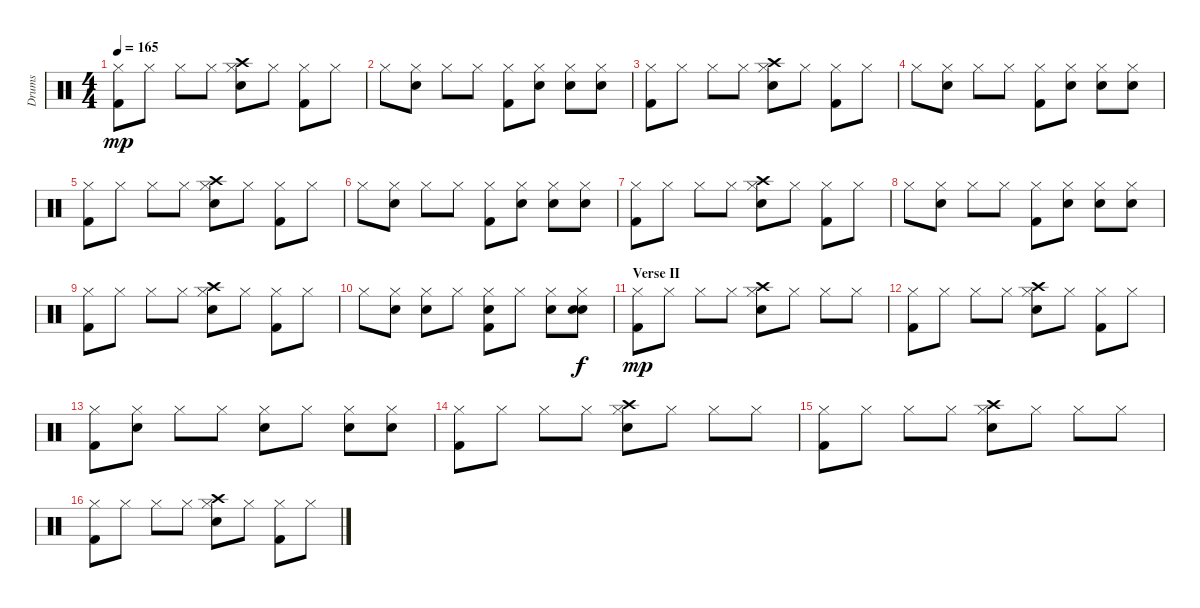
\track ("Drums" "Drums") {instrument percussion}
\staff {score}
\articulation defaults
\ts (4 4)
\tempo 165
\clef neutral
\ks c
("Hi-Hat (closed)" "Kick (hit) 2").8{dy mp} "Hi-Hat (closed)".8 "Hi-Hat (closed)".8 "Hi-Hat (closed)".8 ("Hi-Hat (closed)" "Snare (hit) 2" "Crash high (hit)").8 "Hi-Hat (closed)".8 ("Hi-Hat (closed)" "Kick (hit) 2").8 "Hi-Hat (closed)".8 |
"Hi-Hat (closed)".8 ("Hi-Hat (closed)" "Snare (hit) 2").8 "Hi-Hat (closed)".8 "Hi-Hat (closed)".8 ("Hi-Hat (closed)" "Kick (hit) 2").8 ("Hi-Hat (closed)" "Electric Snare (hit)").8 ("Hi-Hat (closed)" "Electric Snare (hit)").8 ("Hi-Hat (closed)" "Snare (hit) 2").8 |
("Hi-Hat (closed)" "Kick (hit) 2").8 "Hi-Hat (closed)".8 "Hi-Hat (closed)".8 "Hi-Hat (closed)".8 ("Hi-Hat (closed)" "Snare (hit) 2" "Crash high (hit)").8 "Hi-Hat (closed)".8 ("Hi-Hat (closed)" "Kick (hit) 2").8 "Hi-Hat (closed)".8 |
"Hi-Hat (closed)".8 ("Hi-Hat (closed)" "Snare (hit) 2").8 "Hi-Hat (closed)".8 "Hi-Hat (closed)".8 ("Hi-Hat (closed)" "Kick (hit) 2").8 ("Hi-Hat (closed)" "Electric Snare (hit)").8 ("Hi-Hat (closed)" "Electric Snare (hit)").8 ("Hi-Hat (closed)" "Snare (hit) 2").8 |
("Hi-Hat (closed)" "Kick (hit) 2").8 "Hi-Hat (closed)".8 "Hi-Hat (closed)".8 "Hi-Hat (closed)".8 ("Hi-Hat (closed)" "Snare (hit) 2" "Crash high (hit)").8 "Hi-Hat (closed)".8 ("Hi-Hat (closed)" "Kick (hit) 2").8 "Hi-Hat (closed)".8 |
"Hi-Hat (closed)".8 ("Hi-Hat (closed)" "Snare (hit) 2").8 "Hi-Hat (closed)".8 "Hi-Hat (closed)".8 ("Hi-Hat (closed)" "Kick (hit) 2").8 ("Hi-Hat (closed)" "Electric Snare (hit)").8 ("Hi-Hat (closed)" "Electric Snare (hit)").8 ("Hi-Hat (closed)" "Snare (hit) 2").8 |
("Hi-Hat (closed)" "Kick (hit) 2").8 "Hi-Hat (closed)".8 "Hi-Hat (closed)".8 "Hi-Hat (closed)".8 ("Hi-Hat (closed)" "Snare (hit) 2" "Crash high (hit)").8 "Hi-Hat (closed)".8 ("Hi-Hat (closed)" "Kick (hit) 2").8 "Hi-Hat (closed)".8 |
"Hi-Hat (closed)".8 ("Hi-Hat (closed)" "Snare (hit) 2").8 "Hi-Hat (closed)".8 "Hi-Hat (closed)".8 ("Hi-Hat (closed)" "Kick (hit) 2").8 ("Hi-Hat (closed)" "Electric Snare (hit)").8 ("Hi-Hat (closed)" "Electric Snare (hit)").8 ("Hi-Hat (closed)" "Snare (hit) 2").8 |
("Hi-Hat (closed)" "Kick (hit) 2").8 "Hi-Hat (closed)".8 "Hi-Hat (closed)".8 "Hi-Hat (closed)".8 ("Hi-Hat (closed)" "Snare (hit) 2" "Crash high (hit)").8 "Hi-Hat (closed)".8 ("Hi-Hat (closed)" "Kick (hit) 2").8 "Hi-Hat (closed)".8 |
"Hi-Hat (closed)".8 ("Hi-Hat (closed)" "Snare (hit) 2").8 ("Hi-Hat (closed)" "Snare (hit) 2").8 "Hi-Hat (closed)".8 ("Hi-Hat (closed)" "Kick (hit) 2" "Snare (hit) 2").8 "Hi-Hat (closed)".8 ("Hi-Hat (closed)" "Electric Snare (hit)").8 ("Hi-Hat (closed)" "Snare (hit) 2" "Electric Snare (hit)").8{dy f} |
\section ("" "Verse II")
("Hi-Hat (closed)" "Kick (hit) 2").8{dy mp} "Hi-Hat (closed)".8 "Hi-Hat (closed)".8 "Hi-Hat (closed)".8 ("Hi-Hat (closed)" "Snare (hit) 2" "Crash high (hit)").8 "Hi-Hat (closed)".8 "Hi-Hat (closed)".8 "Hi-Hat (closed)".8 |
("Hi-Hat (closed)" "Kick (hit) 2").8 "Hi-Hat (closed)".8 "Hi-Hat (closed)".8 "Hi-Hat (closed)".8 ("Hi-Hat (closed)" "Snare (hit) 2" "Crash high (hit)").8 "Hi-Hat (closed)".8 ("Hi-Hat (closed)" "Kick (hit) 2").8 "Hi-Hat (closed)".8 |
("Hi-Hat (closed)" "Kick (hit) 2").8 ("Hi-Hat (closed)" "Snare (hit) 2").8 "Hi-Hat (closed)".8 "Hi-Hat (closed)".8 ("Hi-Hat (closed)" "Snare (hit) 2").8 "Hi-Hat (closed)".8 ("Hi-Hat (closed)" "Electric Snare (hit)").8 ("Hi-Hat (closed)" "Electric Snare (hit)").8 |
("Hi-Hat (closed)" "Kick (hit) 2").8 "Hi-Hat (closed)".8 "Hi-Hat (closed)".8 "Hi-Hat (closed)".8 ("Hi-Hat (closed)" "Snare (hit) 2" "Crash high (hit)").8 "Hi-Hat (closed)".8 "Hi-Hat (closed)".8 "Hi-Hat (closed)".8 |
("Hi-Hat (closed)" "Kick (hit) 2").8 "Hi-Hat (closed)".8 "Hi-Hat (closed)".8 "Hi-Hat (closed)".8 ("Hi-Hat (closed)" "Snare (hit) 2" "Crash high (hit)").8 "Hi-Hat (closed)".8 "Hi-Hat (closed)".8 "Hi-Hat (closed)".8 |
("Hi-Hat (closed)" "Kick (hit) 2").8 "Hi-Hat (closed)".8 "Hi-Hat (closed)".8 "Hi-Hat (closed)".8 ("Hi-Hat (closed)" "Snare (hit) 2" "Crash high (hit)").8 "Hi-Hat (closed)".8 ("Hi-Hat (closed)" "Kick (hit) 2").8 "Hi-Hat (closed)".8
